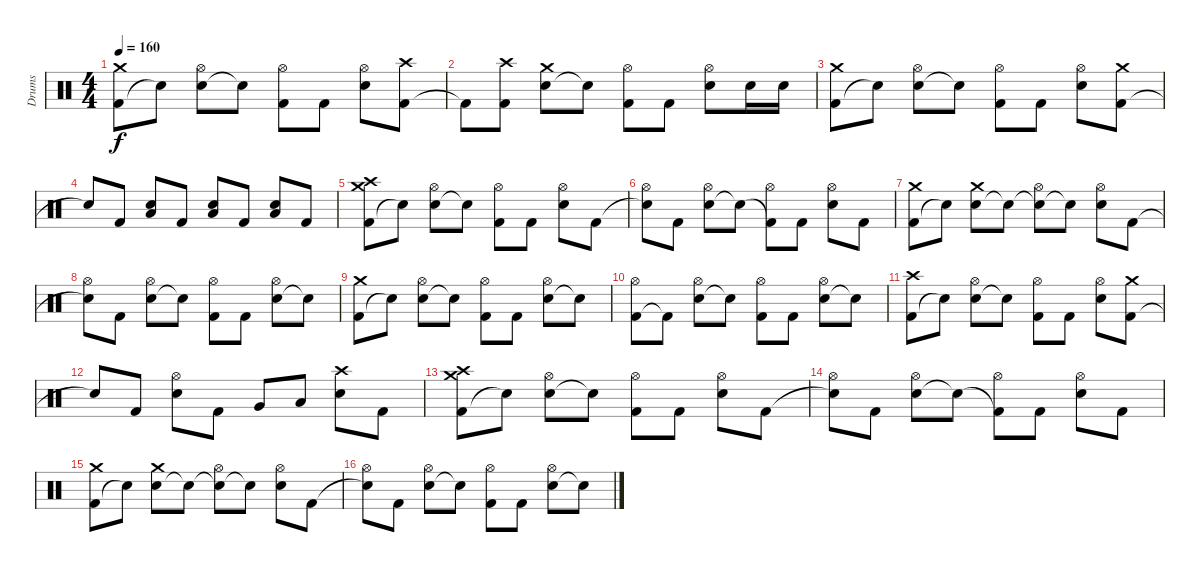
\track ("Drums" "Drums") {instrument percussion}
\staff {score}
\articulation defaults
\ts (4 4)
\tempo 160
\clef neutral
\ks c
("Kick (hit) 2" "Crash medium (hit)").8{dy f} "Snare (hit)"{t}.8 ("Electric Snare (hit)" "Hi-Hat (open)").8 "Snare (hit)"{t}.8 ("Kick (hit) 2" "Hi-Hat (open)").8 "Kick (hit) 2".8 ("Electric Snare (hit)" "Hi-Hat (open)").8 ("Kick (hit) 2" "Crash high (hit)").8 |
"Kick (hit) 2"{t}.8 ("Kick (hit) 2" "Crash high (hit)").8 ("Electric Snare (hit)" "Crash medium (hit)").8 "Snare (hit)"{t}.8 ("Kick (hit) 2" "Hi-Hat (open)").8 "Kick (hit) 2".8 ("Electric Snare (hit)" "Hi-Hat (open)").8 "Electric Snare (hit)".16 "Electric Snare (hit)".16 |
("Kick (hit) 2" "Crash medium (hit)").8 "Snare (hit)"{t}.8 ("Electric Snare (hit)" "Hi-Hat (open)").8 "Snare (hit)"{t}.8 ("Kick (hit) 2" "Hi-Hat (open)").8 "Kick (hit) 2".8 ("Electric Snare (hit)" "Hi-Hat (open)").8 ("Kick (hit) 2" "Crash medium (hit)").8 |
"Snare (hit)"{t}.8 "Kick (hit) 2".8 ("Electric Snare (hit)" "Low Floor Tom (hit)").8 "Kick (hit) 2".8 ("Electric Snare (hit)" "Low Floor Tom (hit)").8 "Kick (hit) 2".8 ("Electric Snare (hit)" "Low Floor Tom (hit)").8 "Kick (hit) 2".8 |
("Kick (hit) 2" "Crash medium (hit)" "Crash high (hit)").8 "Snare (hit)"{t}.8 ("Electric Snare (hit)" "Hi-Hat (open)").8 "Snare (hit)"{t}.8 ("Kick (hit) 2" "Hi-Hat (open)").8 "Kick (hit) 2".8 ("Electric Snare (hit)" "Hi-Hat (open)").8 "Kick (hit) 2".8 |
("Snare (hit)"{t} "Hi-Hat (open)").8 "Kick (hit) 2".8 ("Electric Snare (hit)" "Hi-Hat (open)").8 "Snare (hit)"{t}.8 ("Kick (hit) 2"{t} "Hi-Hat (open)").8 "Kick (hit) 2".8 ("Electric Snare (hit)" "Hi-Hat (open)").8 "Kick (hit) 2".8 |
("Kick (hit) 2" "Crash medium (hit)").8 "Snare (hit)"{t}.8 ("Electric Snare (hit)" "Crash medium (hit)").8 "Snare (hit)"{t}.8 ("Snare (hit)"{t} "Hi-Hat (open)").8 "Snare (hit)"{t}.8 ("Electric Snare (hit)" "Hi-Hat (open)").8 "Kick (hit) 2".8 |
("Snare (hit)"{t} "Hi-Hat (open)").8 "Kick (hit) 2".8 ("Electric Snare (hit)" "Hi-Hat (open)").8 "Snare (hit)"{t}.8 ("Kick (hit) 2" "Hi-Hat (open)").8 "Kick (hit) 2".8 ("Electric Snare (hit)" "Hi-Hat (open)").8 "Snare (hit)"{t}.8 |
("Kick (hit) 2" "Crash medium (hit)").8 "Snare (hit)"{t}.8 ("Electric Snare (hit)" "Hi-Hat (open)").8 "Snare (hit)"{t}.8 ("Kick (hit) 2" "Hi-Hat (open)").8 "Kick (hit) 2".8 ("Electric Snare (hit)" "Hi-Hat (open)").8 "Snare (hit)"{t}.8 |
("Kick (hit) 2" "Hi-Hat (open)").8 "Kick (hit) 2"{t}.8 ("Electric Snare (hit)" "Hi-Hat (open)").8 "Snare (hit)"{t}.8 ("Kick (hit) 2" "Hi-Hat (open)").8 "Kick (hit) 2".8 ("Electric Snare (hit)" "Hi-Hat (open)").8 "Electric Snare (hit)"{t}.8 |
("Kick (hit) 2" "Crash high (hit)").8 "Snare (hit)"{t}.8 ("Electric Snare (hit)" "Hi-Hat (open)").8 "Snare (hit)"{t}.8 ("Kick (hit) 2" "Hi-Hat (open)").8 "Kick (hit) 2".8 ("Electric Snare (hit)" "Hi-Hat (open)").8 ("Kick (hit) 2" "Crash medium (hit)").8 |
"Snare (hit)"{t}.8 "Kick (hit) 2".8 ("Electric Snare (hit)" "Hi-Hat (open)").8 "Kick (hit) 2".8 "Very Low Tom (hit)".8 "Low Tom (hit)".8 ("Electric Snare (hit)" "Crash high (hit)").8 "Kick (hit) 2".8 |
("Kick (hit) 2" "Crash medium (hit)" "Crash high (hit)").8 "Snare (hit)"{t}.8 ("Electric Snare (hit)" "Hi-Hat (open)").8 "Snare (hit)"{t}.8 ("Kick (hit) 2" "Hi-Hat (open)").8 "Kick (hit) 2".8 ("Electric Snare (hit)" "Hi-Hat (open)").8 "Kick (hit) 2".8 |
("Snare (hit)"{t} "Hi-Hat (open)").8 "Kick (hit) 2".8 ("Electric Snare (hit)" "Hi-Hat (open)").8 "Snare (hit)"{t}.8 ("Kick (hit) 2"{t} "Hi-Hat (open)").8 "Kick (hit) 2".8 ("Electric Snare (hit)" "Hi-Hat (open)").8 "Kick (hit) 2".8 |
("Kick (hit) 2" "Crash medium (hit)").8 "Snare (hit)"{t}.8 ("Electric Snare (hit)" "Crash medium (hit)").8 "Snare (hit)"{t}.8 ("Snare (hit)"{t} "Hi-Hat (open)").8 "Snare (hit)"{t}.8 ("Electric Snare (hit)" "Hi-Hat (open)").8 "Kick (hit) 2".8 |
("Snare (hit)"{t} "Hi-Hat (open)").8 "Kick (hit) 2".8 ("Electric Snare (hit)" "Hi-Hat (open)").8 "Snare (hit)"{t}.8 ("Kick (hit) 2" "Hi-Hat (open)").8 "Kick (hit) 2".8 ("Electric Snare (hit)" "Hi-Hat (open)").8 "Snare (hit)"{t}.8
